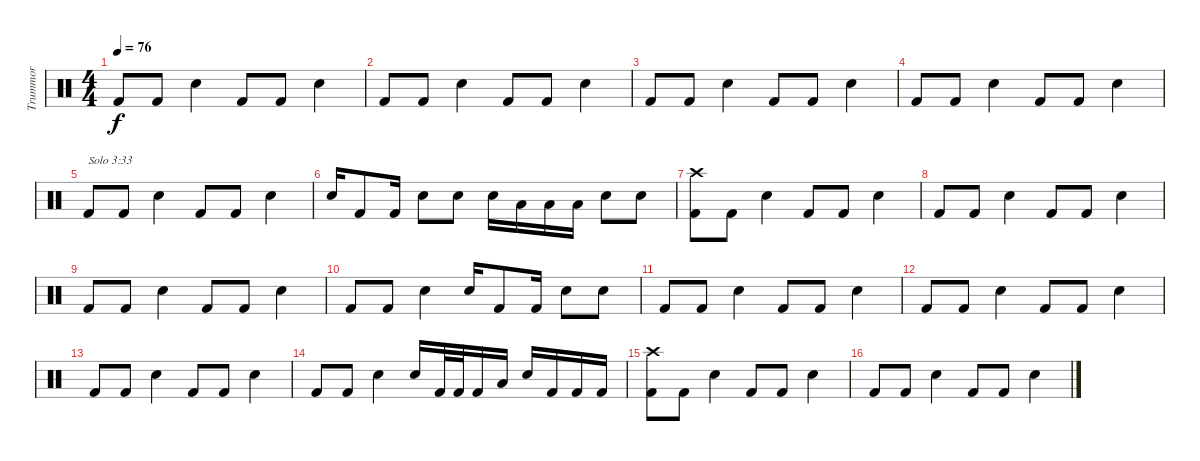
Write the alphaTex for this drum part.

\track ("Trummor" "Trummor") {instrument percussion}
\staff {score}
\articulation defaults
\ts (4 4)
\tempo 76
\clef neutral
\ks c "Kick (hit) 2".8{dy f} "Kick (hit) 2".8 "Snare (hit) 2".4 "Kick (hit) 2".8 "Kick (hit) 2".8 "Snare (hit) 2".4
|
"Kick (hit) 2".8 "Kick (hit) 2".8 "Snare (hit) 2".4 "Kick (hit) 2".8 "Kick (hit) 2".8 "Snare (hit) 2".4 |
"Kick (hit) 2".8 "Kick (hit) 2".8 "Snare (hit) 2".4 "Kick (hit) 2".8 "Kick (hit) 2".8 "Snare (hit) 2".4 |
"Kick (hit) 2".8 "Kick (hit) 2".8 "Snare (hit) 2".4 "Kick (hit) 2".8 "Kick (hit) 2".8 "Snare (hit) 2".4 |
"Kick (hit) 2".8{txt "Solo 3:33"} "Kick (hit) 2".8 "Snare (hit) 2".4 "Kick (hit) 2".8 "Kick (hit) 2".8 "Snare (hit) 2".4 |
"Snare (hit) 2".16 "Kick (hit) 2".8 "Kick (hit) 2".16 "Snare (hit) 2".8 "Snare (hit) 2".8 "Snare (hit) 2".16 "Low Floor Tom (hit)".16 "Low Floor Tom (hit)".16 "Low Floor Tom (hit)".16 "Snare (hit) 2".8 "Snare (hit) 2".8 |
("Crash high (hit)" "Kick (hit) 2").8 "Kick (hit) 2".8 "Snare (hit) 2".4 "Kick (hit) 2".8 "Kick (hit) 2".8 "Snare (hit) 2".4 |
"Kick (hit) 2".8 "Kick (hit) 2".8 "Snare (hit) 2".4 "Kick (hit) 2".8 "Kick (hit) 2".8 "Snare (hit) 2".4 |
"Kick (hit) 2".8 "Kick (hit) 2".8 "Snare (hit) 2".4 "Kick (hit) 2".8 "Kick (hit) 2".8 "Snare (hit) 2".4 |
"Kick (hit) 2".8 "Kick (hit) 2".8 "Snare (hit) 2".4 "Snare (hit) 2".16 "Kick (hit) 2".8 "Kick (hit) 2".16 "Snare (hit) 2".8 "Snare (hit) 2".8 |
"Kick (hit) 2".8 "Kick (hit) 2".8 "Snare (hit) 2".4 "Kick (hit) 2".8 "Kick (hit) 2".8 "Snare (hit) 2".4 |
"Kick (hit) 2".8 "Kick (hit) 2".8 "Snare (hit) 2".4 "Kick (hit) 2".8 "Kick (hit) 2".8 "Snare (hit) 2".4 |
"Kick (hit) 2".8 "Kick (hit) 2".8 "Snare (hit) 2".4 "Kick (hit) 2".8 "Kick (hit) 2".8 "Snare (hit) 2".4 |
"Kick (hit) 2".8 "Kick (hit) 2".8 "Snare (hit) 2".4 "Snare (hit) 2".16 "Kick (hit) 2".32 "Kick (hit) 2".32 "Kick (hit) 2".16 "Low Floor Tom (hit)".16 "Snare (hit) 2".16 "Kick (hit) 2".16 "Kick (hit) 2".16 "Kick (hit) 2".16 |
("Crash high (hit)" "Kick (hit) 2").8 "Kick (hit) 2".8 "Snare (hit) 2".4 "Kick (hit) 2".8 "Kick (hit) 2".8 "Snare (hit) 2".4 |
"Kick (hit) 2".8 "Kick (hit) 2".8 "Snare (hit) 2".4 "Kick (hit) 2".8 "Kick (hit) 2".8 "Snare (hit) 2".4
